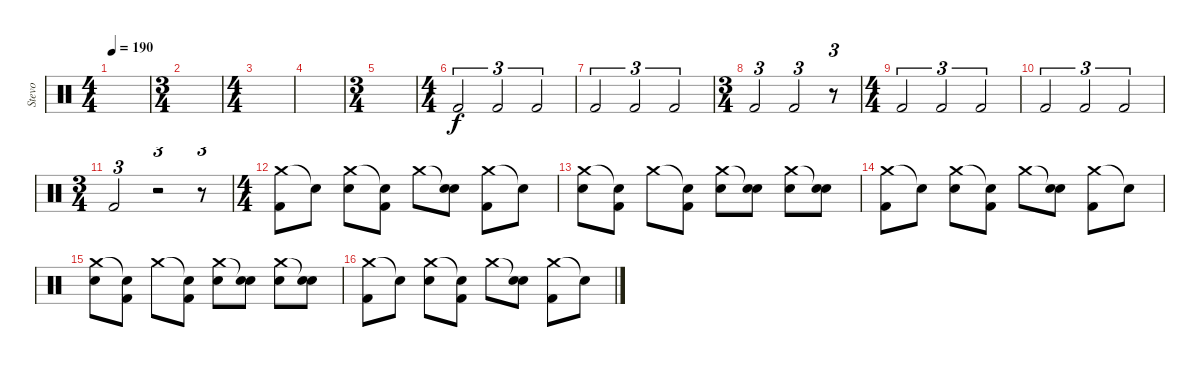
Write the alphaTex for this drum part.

\track ("Stevo" "Stevo") {instrument percussion}
\staff {score}
\articulation defaults
\ts (4 4)
\tempo 190
\clef neutral
\ks c
|
\ts (3 4)
|
\ts (4 4)
|
|
\ts (3 4)
|
\ts (4 4)
"Kick (hit) 2".2{tu (3 2)} "Kick (hit) 2".2{tu (3 2)} "Kick (hit) 2".2{tu (3 2)} |
"Kick (hit) 2".2{tu (3 2)} "Kick (hit) 2".2{tu (3 2)} "Kick (hit) 2".2{tu (3 2)} |
\ts (3 4)
"Kick (hit) 2".2{tu (3 2)} "Kick (hit) 2".2{tu (3 2)} r.8{tu (3 2)} |
\ts (4 4)
"Kick (hit) 2".2{tu (3 2)} "Kick (hit) 2".2{tu (3 2)} "Kick (hit) 2".2{tu (3 2)} |
"Kick (hit) 2".2{tu (3 2)} "Kick (hit) 2".2{tu (3 2)} "Kick (hit) 2".2{tu (3 2)} |
\ts (3 4)
"Kick (hit) 2".2{tu (3 2)} r.2{tu (3 2)} r.8{tu (3 2)} |
\ts (4 4)
("Crash medium (hit)" "Kick (hit) 2").8 "Snare (hit)"{t}.8 ("Crash medium (hit)" "Electric Snare (hit)").8 ("Snare (hit)"{t} "Kick (hit) 2").8 "Crash medium (hit)".8 ("Snare (hit)"{t} "Electric Snare (hit)").8 ("Crash medium (hit)" "Kick (hit) 2").8 "Snare (hit)"{t}.8 |
("Crash medium (hit)" "Electric Snare (hit)").8 ("Snare (hit)"{t} "Kick (hit) 2").8 "Crash medium (hit)".8 ("Snare (hit)"{t} "Kick (hit) 2").8 ("Crash medium (hit)" "Electric Snare (hit)").8 ("Snare (hit)"{t} "Electric Snare (hit)").8 ("Crash medium (hit)" "Electric Snare (hit)").8 ("Snare (hit)"{t} "Electric Snare (hit)").8 |
("Crash medium (hit)" "Kick (hit) 2").8 "Snare (hit)"{t}.8 ("Crash medium (hit)" "Electric Snare (hit)").8 ("Snare (hit)"{t} "Kick (hit) 2").8 "Crash medium (hit)".8 ("Snare (hit)"{t} "Electric Snare (hit)").8 ("Crash medium (hit)" "Kick (hit) 2").8 "Snare (hit)"{t}.8 |
("Crash medium (hit)" "Electric Snare (hit)").8 ("Snare (hit)"{t} "Kick (hit) 2").8 "Crash medium (hit)".8 ("Snare (hit)"{t} "Kick (hit) 2").8 ("Crash medium (hit)" "Electric Snare (hit)").8 ("Snare (hit)"{t} "Electric Snare (hit)").8 ("Crash medium (hit)" "Electric Snare (hit)").8 ("Snare (hit)"{t} "Electric Snare (hit)").8 |
("Crash medium (hit)" "Kick (hit) 2").8 "Snare (hit)"{t}.8 ("Crash medium (hit)" "Electric Snare (hit)").8 ("Snare (hit)"{t} "Kick (hit) 2").8 "Crash medium (hit)".8 ("Snare (hit)"{t} "Electric Snare (hit)").8 ("Crash medium (hit)" "Kick (hit) 2").8 "Snare (hit)"{t}.8
